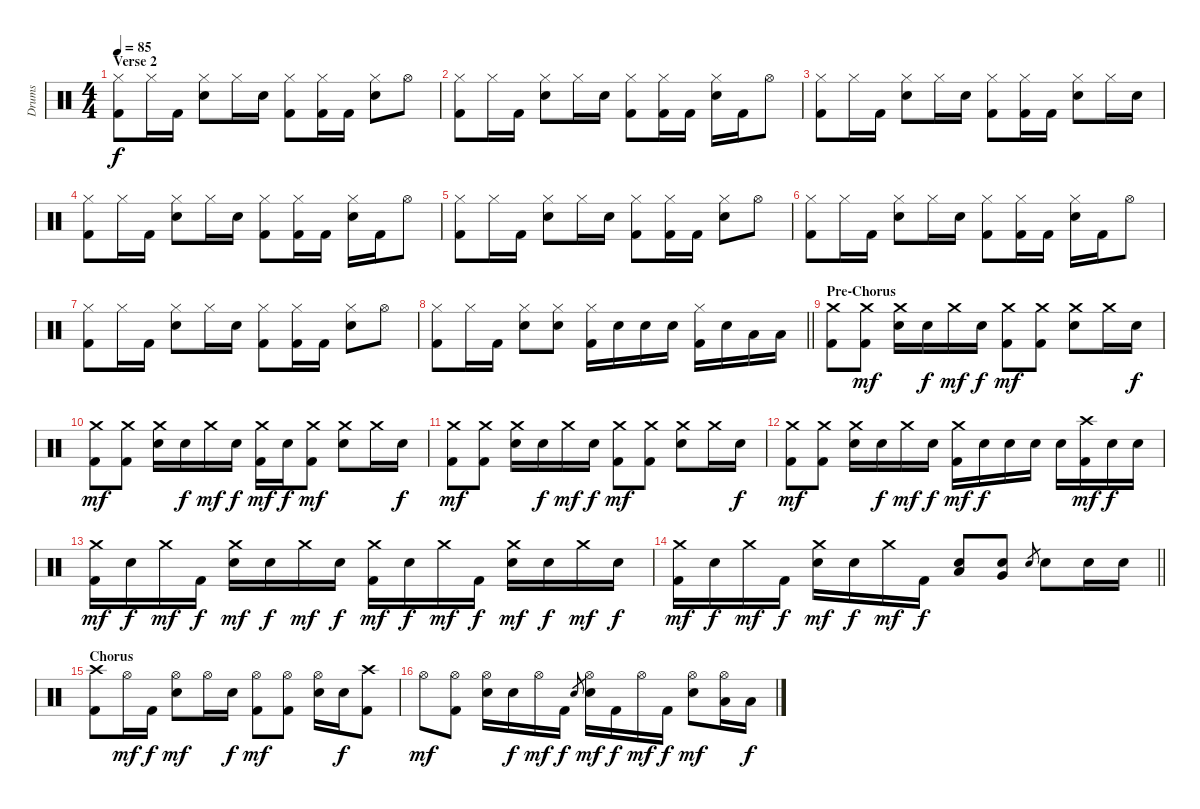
\track ("Drums" "Drums") {instrument percussion}
\staff {score}
\articulation defaults
\ts (4 4)
\section ("" "Verse 2")
\tempo 85
\clef neutral
\ks c
("Hi-Hat (closed)" "Kick (hit) 2").8{dy f} "Hi-Hat (closed)".16 "Kick (hit) 2".16 ("Hi-Hat (closed)" "Electric Snare (hit)").8 "Hi-Hat (closed)".16 "Electric Snare (hit)".16 ("Hi-Hat (closed)" "Kick (hit) 2").8 ("Hi-Hat (closed)" "Kick (hit) 2").16 "Kick (hit) 2".16 ("Hi-Hat (closed)" "Electric Snare (hit)").8 "Hi-Hat (open)".8 |
("Hi-Hat (closed)" "Kick (hit) 2").8 "Hi-Hat (closed)".16 "Kick (hit) 2".16 ("Hi-Hat (closed)" "Electric Snare (hit)").8 "Hi-Hat (closed)".16 "Electric Snare (hit)".16 ("Hi-Hat (closed)" "Kick (hit) 2").8 ("Hi-Hat (closed)" "Kick (hit) 2").16 "Kick (hit) 2".16 ("Hi-Hat (closed)" "Electric Snare (hit)").16 "Kick (hit) 2".16 "Hi-Hat (open)".8 |
("Hi-Hat (closed)" "Kick (hit) 2").8 "Hi-Hat (closed)".16 "Kick (hit) 2".16 ("Hi-Hat (closed)" "Electric Snare (hit)").8 "Hi-Hat (closed)".16 "Electric Snare (hit)".16 ("Hi-Hat (closed)" "Kick (hit) 2").8 ("Hi-Hat (closed)" "Kick (hit) 2").16 "Kick (hit) 2".16 ("Hi-Hat (closed)" "Electric Snare (hit)").8 "Hi-Hat (closed)".16 "Electric Snare (hit)".16 |
("Hi-Hat (closed)" "Kick (hit) 2").8 "Hi-Hat (closed)".16 "Kick (hit) 2".16 ("Hi-Hat (closed)" "Electric Snare (hit)").8 "Hi-Hat (closed)".16 "Electric Snare (hit)".16 ("Hi-Hat (closed)" "Kick (hit) 2").8 ("Hi-Hat (closed)" "Kick (hit) 2").16 "Kick (hit) 2".16 ("Hi-Hat (closed)" "Electric Snare (hit)").16 "Kick (hit) 2".16 "Hi-Hat (open)".8 |
("Hi-Hat (closed)" "Kick (hit) 2").8 "Hi-Hat (closed)".16 "Kick (hit) 2".16 ("Hi-Hat (closed)" "Electric Snare (hit)").8 "Hi-Hat (closed)".16 "Electric Snare (hit)".16 ("Hi-Hat (closed)" "Kick (hit) 2").8 ("Hi-Hat (closed)" "Kick (hit) 2").16 "Kick (hit) 2".16 ("Hi-Hat (closed)" "Electric Snare (hit)").8 "Hi-Hat (open)".8 |
("Hi-Hat (closed)" "Kick (hit) 2").8 "Hi-Hat (closed)".16 "Kick (hit) 2".16 ("Hi-Hat (closed)" "Electric Snare (hit)").8 "Hi-Hat (closed)".16 "Electric Snare (hit)".16 ("Hi-Hat (closed)" "Kick (hit) 2").8 ("Hi-Hat (closed)" "Kick (hit) 2").16 "Kick (hit) 2".16 ("Hi-Hat (closed)" "Electric Snare (hit)").16 "Kick (hit) 2".16 "Hi-Hat (open)".8 |
("Hi-Hat (closed)" "Kick (hit) 2").8 "Hi-Hat (closed)".16 "Kick (hit) 2".16 ("Hi-Hat (closed)" "Electric Snare (hit)").8 "Hi-Hat (closed)".16 "Electric Snare (hit)".16 ("Hi-Hat (closed)" "Kick (hit) 2").8 ("Hi-Hat (closed)" "Kick (hit) 2").16 "Kick (hit) 2".16 ("Hi-Hat (closed)" "Electric Snare (hit)").8 "Hi-Hat (open)".8 |
\barLineRight lightlight
("Hi-Hat (closed)" "Kick (hit) 2").8 "Hi-Hat (closed)".16 "Kick (hit) 2".16 ("Hi-Hat (closed)" "Electric Snare (hit)").8 ("Hi-Hat (closed)" "Electric Snare (hit)").8 ("Hi-Hat (closed)" "Kick (hit) 2").16 "Electric Snare (hit)".16 "Electric Snare (hit)".16 "Electric Snare (hit)".16 ("Hi-Hat (closed)" "Kick (hit) 2").16 "Electric Snare (hit)".16 "Low Tom (hit)".16 "Low Tom (hit)".16 |
\section ("" "Pre-Chorus")
("Crash medium (hit)" "Kick (hit) 2").8 ("Crash medium (hit)" "Kick (hit) 2").8{dy mf} ("Crash medium (hit)" "Electric Snare (hit)").16 "Electric Snare (hit)".16{dy f} "Crash medium (hit)".16{dy mf} "Electric Snare (hit)".16{dy f} ("Crash medium (hit)" "Kick (hit) 2").8{dy mf} ("Crash medium (hit)" "Kick (hit) 2").8 ("Crash medium (hit)" "Electric Snare (hit)").8 "Crash medium (hit)".16 "Electric Snare (hit)".16{dy f} |
("Crash medium (hit)" "Kick (hit) 2").8{dy mf} ("Crash medium (hit)" "Kick (hit) 2").8 ("Crash medium (hit)" "Electric Snare (hit)").16 "Electric Snare (hit)".16{dy f} "Crash medium (hit)".16{dy mf} "Electric Snare (hit)".16{dy f} ("Crash medium (hit)" "Kick (hit) 2").16{dy mf} "Electric Snare (hit)".16{dy f} ("Crash medium (hit)" "Kick (hit) 2").8{dy mf} ("Crash medium (hit)" "Electric Snare (hit)").8 "Crash medium (hit)".16 "Electric Snare (hit)".16{dy f} |
("Crash medium (hit)" "Kick (hit) 2").8{dy mf} ("Crash medium (hit)" "Kick (hit) 2").8 ("Crash medium (hit)" "Electric Snare (hit)").16 "Electric Snare (hit)".16{dy f} "Crash medium (hit)".16{dy mf} "Electric Snare (hit)".16{dy f} ("Crash medium (hit)" "Kick (hit) 2").8{dy mf} ("Crash medium (hit)" "Kick (hit) 2").8 ("Crash medium (hit)" "Electric Snare (hit)").8 "Crash medium (hit)".16 "Electric Snare (hit)".16{dy f} |
("Crash medium (hit)" "Kick (hit) 2").8{dy mf} ("Crash medium (hit)" "Kick (hit) 2").8 ("Crash medium (hit)" "Electric Snare (hit)").16 "Electric Snare (hit)".16{dy f} "Crash medium (hit)".16{dy mf} "Electric Snare (hit)".16{dy f} ("Crash medium (hit)" "Kick (hit) 2").16{dy mf} "Electric Snare (hit)".16{dy f} "Electric Snare (hit)".16 "Electric Snare (hit)".16 "Electric Snare (hit)".16 ("Crash high (hit)" "Kick (hit) 2").16{dy mf} "Electric Snare (hit)".16{dy f} "Electric Snare (hit)".16 |
("Crash medium (hit)" "Kick (hit) 2").16{dy mf} "Electric Snare (hit)".16{dy f} "Crash medium (hit)".16{dy mf} "Kick (hit) 2".16{dy f} ("Crash medium (hit)" "Electric Snare (hit)").16{dy mf} "Electric Snare (hit)".16{dy f} "Crash medium (hit)".16{dy mf} "Electric Snare (hit)".16{dy f} ("Crash medium (hit)" "Kick (hit) 2").16{dy mf} "Electric Snare (hit)".16{dy f} "Crash medium (hit)".16{dy mf} "Kick (hit) 2".16{dy f} ("Crash medium (hit)" "Electric Snare (hit)").16{dy mf} "Electric Snare (hit)".16{dy f} "Crash medium (hit)".16{dy mf} "Electric Snare (hit)".16{dy f} |
\barLineRight lightlight
("Crash medium (hit)" "Kick (hit) 2").16{dy mf} "Electric Snare (hit)".16{dy f} "Crash medium (hit)".16{dy mf} "Kick (hit) 2".16{dy f} ("Crash medium (hit)" "Electric Snare (hit)").16{dy mf} "Electric Snare (hit)".16{dy f} "Crash medium (hit)".16{dy mf} "Kick (hit) 2".16{dy f} ("Low Tom (hit)" "Electric Snare (hit)").8 ("Very Low Tom (hit)" "Electric Snare (hit)").8 "Electric Snare (hit)".8{gr} "Electric Snare (hit)".8 "Electric Snare (hit)".16 "Electric Snare (hit)".16 |
\section ("" "Chorus")
("Crash high (hit)" "Kick (hit) 2").8 "Hi-Hat (open)".16{dy mf} "Kick (hit) 2".16{dy f} ("Hi-Hat (open)" "Electric Snare (hit)").8{dy mf} "Hi-Hat (open)".16 "Electric Snare (hit)".16{dy f} ("Hi-Hat (open)" "Kick (hit) 2").8{dy mf} ("Hi-Hat (open)" "Kick (hit) 2").8 ("Hi-Hat (open)" "Electric Snare (hit)").16 "Electric Snare (hit)".16{dy f} ("Crash high (hit)" "Kick (hit) 2").8 |
"Hi-Hat (open)".8{dy mf} ("Hi-Hat (open)" "Kick (hit) 2").8 ("Hi-Hat (open)" "Electric Snare (hit)").16 "Electric Snare (hit)".16{dy f} "Hi-Hat (open)".16{dy mf} "Kick (hit) 2".16{dy f} "Electric Snare (hit)".8{gr} ("Hi-Hat (open)" "Electric Snare (hit)").16{dy mf} "Kick (hit) 2".16{dy f} "Hi-Hat (open)".16{dy mf} "Kick (hit) 2".16{dy f} ("Hi-Hat (open)" "Electric Snare (hit)").8{dy mf} ("Hi-Hat (open)" "Low Tom (hit)").16 "Low Tom (hit)".16{dy f}
